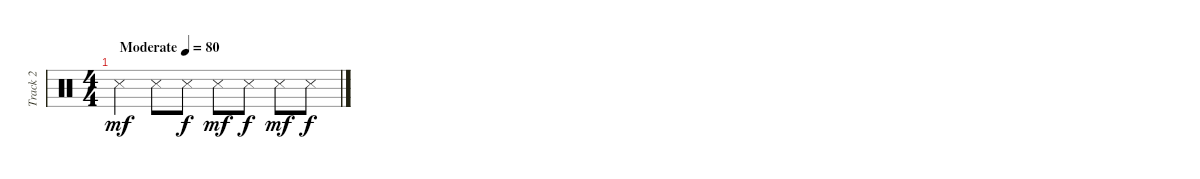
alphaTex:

\track ("Track 2" "Track 2") {instrument percussion}
\staff {score}
\articulation defaults
\ts (4 4)
\tempo (80 "Moderate")
\clef neutral
\ks c "Snare (side stick) 3".4{dy mf} "Snare (side stick) 3".8 "Snare (side stick) 3".8{dy f} "Snare (side stick) 3".8{dy mf} "Snare (side stick) 3".8{dy f} "Snare (side stick) 3".8{dy mf} "Snare (side stick) 3".8{dy f}
